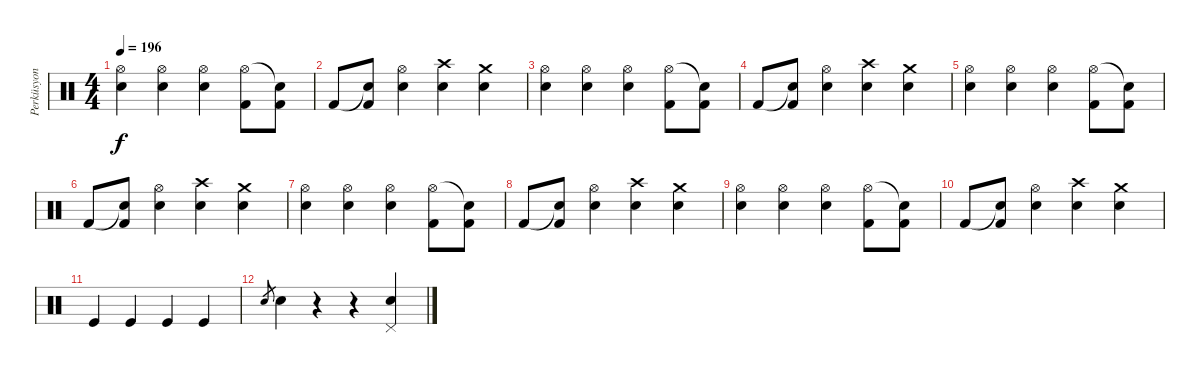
\track ("Perküsyon" "Perküsyon") {instrument percussion}
\staff {score}
\articulation defaults
\ts (4 4)
\tempo 196
\clef neutral
\ks c
("Electric Snare (hit)" "Hi-Hat (open)").4{dy f} ("Electric Snare (hit)" "Hi-Hat (open)").4 ("Electric Snare (hit)" "Hi-Hat (open)").4 ("Hi-Hat (open)" "Kick (hit) 2").8 ("Snare (hit)"{t} "Kick (hit) 2").8 |
"Kick (hit) 2".8 ("Snare (hit)"{t} "Kick (hit) 2").8 ("Electric Snare (hit)" "Hi-Hat (open)").4 ("Snare (hit) 2" "Crash high (hit)").4 ("Crash medium (hit)" "Snare (hit) 2").4 |
("Electric Snare (hit)" "Hi-Hat (open)").4 ("Electric Snare (hit)" "Hi-Hat (open)").4 ("Electric Snare (hit)" "Hi-Hat (open)").4 ("Hi-Hat (open)" "Kick (hit) 2").8 ("Snare (hit)"{t} "Kick (hit) 2").8 |
"Kick (hit) 2".8 ("Snare (hit)"{t} "Kick (hit) 2").8 ("Electric Snare (hit)" "Hi-Hat (open)").4 ("Snare (hit) 2" "Crash high (hit)").4 ("Crash medium (hit)" "Snare (hit) 2").4 |
("Electric Snare (hit)" "Hi-Hat (open)").4 ("Electric Snare (hit)" "Hi-Hat (open)").4 ("Electric Snare (hit)" "Hi-Hat (open)").4 ("Hi-Hat (open)" "Kick (hit) 2").8 ("Snare (hit)"{t} "Kick (hit) 2").8 |
"Kick (hit) 2".8 ("Snare (hit)"{t} "Kick (hit) 2").8 ("Electric Snare (hit)" "Hi-Hat (open)").4 ("Snare (hit) 2" "Crash high (hit)").4 ("Crash medium (hit)" "Snare (hit) 2").4 |
("Electric Snare (hit)" "Hi-Hat (open)").4 ("Electric Snare (hit)" "Hi-Hat (open)").4 ("Electric Snare (hit)" "Hi-Hat (open)").4 ("Hi-Hat (open)" "Kick (hit) 2").8 ("Snare (hit)"{t} "Kick (hit) 2").8 |
"Kick (hit) 2".8 ("Snare (hit)"{t} "Kick (hit) 2").8 ("Electric Snare (hit)" "Hi-Hat (open)").4 ("Snare (hit) 2" "Crash high (hit)").4 ("Crash medium (hit)" "Snare (hit) 2").4 |
("Electric Snare (hit)" "Hi-Hat (open)").4 ("Electric Snare (hit)" "Hi-Hat (open)").4 ("Electric Snare (hit)" "Hi-Hat (open)").4 ("Hi-Hat (open)" "Kick (hit) 2").8 ("Snare (hit)"{t} "Kick (hit) 2").8 |
"Kick (hit) 2".8 ("Snare (hit)"{t} "Kick (hit) 2").8 ("Electric Snare (hit)" "Hi-Hat (open)").4 ("Snare (hit) 2" "Crash high (hit)").4 ("Crash medium (hit)" "Snare (hit) 2").4 |
"Kick (hit)".4 "Kick (hit)".4 "Kick (hit)".4 "Kick (hit)".4 |
"Electric Snare (hit)".8{gr} "Electric Snare (hit)".4 r.4 r.4 ("Pedal Hi-Hat (hit)" "Electric Snare (hit)").4
